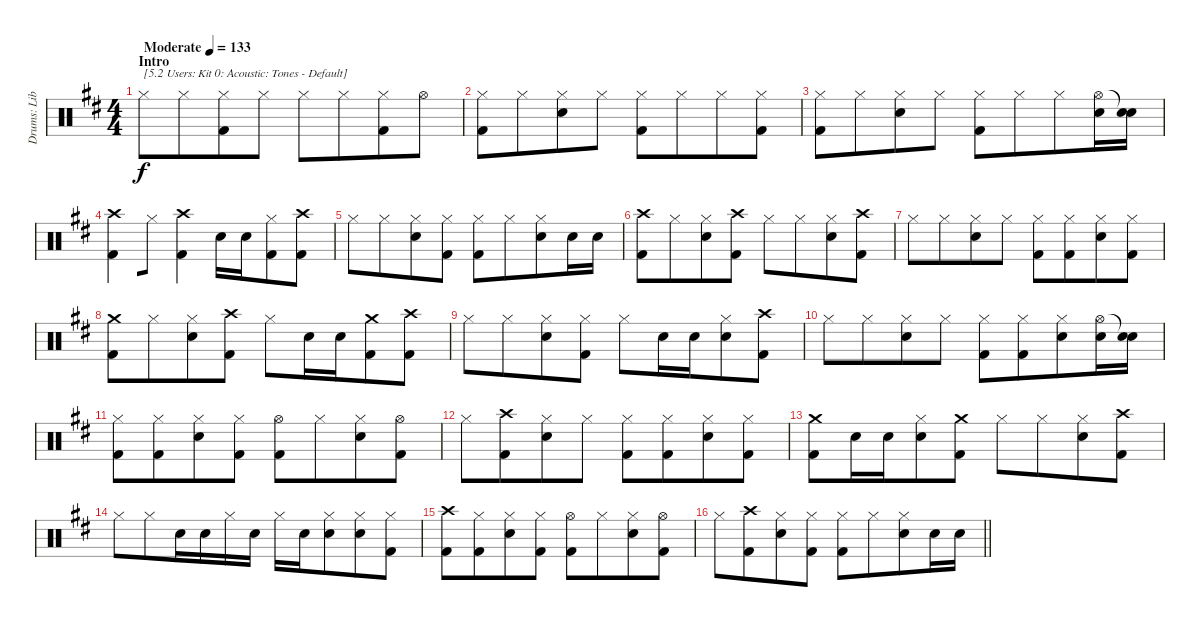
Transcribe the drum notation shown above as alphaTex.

\track ("Drums: Liberty" "Drums: Lib") {instrument percussion}
\staff {score}
\articulation defaults
\ts (4 4)
\section ("" "Intro")
\tempo (133 "Moderate")
\clef neutral
\ks d "Hi-Hat (closed)".8{txt "[5.2 Users: Kit 0: Acoustic: Tones - Default]" dy f} "Hi-Hat (closed)".8{beam merge}
("Hi-Hat (closed)" "Kick (hit) 2").8 "Hi-Hat (closed)".8 "Hi-Hat (closed)".8 "Hi-Hat (closed)".8{beam merge} ("Hi-Hat (closed)" "Kick (hit) 2").8 "Hi-Hat (open)".8 |
("Hi-Hat (closed)" "Kick (hit) 2").8 "Hi-Hat (closed)".8{beam merge} ("Hi-Hat (closed)" "Electric Snare (hit)").8 "Hi-Hat (closed)".8 ("Hi-Hat (closed)" "Kick (hit) 2").8 "Hi-Hat (closed)".8{beam merge} "Hi-Hat (closed)".8 ("Hi-Hat (closed)" "Kick (hit) 2").8 |
("Hi-Hat (closed)" "Kick (hit) 2").8 "Hi-Hat (closed)".8{beam merge} ("Hi-Hat (closed)" "Electric Snare (hit)").8 "Hi-Hat (closed)".8 ("Hi-Hat (closed)" "Kick (hit) 2").8 "Hi-Hat (closed)".8{beam merge} "Hi-Hat (closed)".8 ("Hi-Hat (open)" "Electric Snare (hit)").16 ("Snare (hit)"{t} "Electric Snare (hit)").16 |
("Crash high (hit)" "Kick (hit) 2").4{beam merge} "Hi-Hat (closed)".8 ("Crash high (hit)" "Kick (hit) 2").4 "Electric Snare (hit)".16 "Electric Snare (hit)".16{beam merge} ("Hi-Hat (closed)" "Kick (hit) 2").8 ("Crash high (hit)" "Kick (hit) 2").8 |
"Hi-Hat (closed)".8 "Hi-Hat (closed)".8{beam merge} ("Hi-Hat (closed)" "Electric Snare (hit)").8 ("Hi-Hat (closed)" "Kick (hit) 2").8 ("Hi-Hat (closed)" "Kick (hit) 2").8 "Hi-Hat (closed)".8{beam merge} ("Hi-Hat (closed)" "Electric Snare (hit)").8 "Electric Snare (hit)".16 "Electric Snare (hit)".16 |
("Crash high (hit)" "Kick (hit) 2").8 "Hi-Hat (closed)".8{beam merge} ("Hi-Hat (closed)" "Electric Snare (hit)").8 ("Crash high (hit)" "Kick (hit) 2").8 "Hi-Hat (closed)".8 "Hi-Hat (closed)".8{beam merge} ("Hi-Hat (closed)" "Electric Snare (hit)").8 ("Crash high (hit)" "Kick (hit) 2").8 |
"Hi-Hat (closed)".8 "Hi-Hat (closed)".8{beam merge} ("Hi-Hat (closed)" "Electric Snare (hit)").8 "Hi-Hat (closed)".8 ("Hi-Hat (closed)" "Kick (hit) 2").8 ("Hi-Hat (closed)" "Kick (hit) 2").8{beam merge} ("Hi-Hat (closed)" "Electric Snare (hit)").8 ("Hi-Hat (closed)" "Kick (hit) 2").8 |
("Crash medium (hit)" "Kick (hit) 2").8 "Hi-Hat (closed)".8{beam merge} ("Hi-Hat (closed)" "Electric Snare (hit)").8 ("Crash high (hit)" "Kick (hit) 2").8 "Hi-Hat (closed)".8 "Electric Snare (hit)".16 "Electric Snare (hit)".16{beam merge} ("Crash medium (hit)" "Kick (hit) 2").8 ("Crash high (hit)" "Kick (hit) 2").8 |
"Hi-Hat (closed)".8 "Hi-Hat (closed)".8{beam merge} ("Hi-Hat (closed)" "Electric Snare (hit)").8 ("Hi-Hat (closed)" "Kick (hit) 2").8 "Hi-Hat (closed)".8 "Electric Snare (hit)".16 "Electric Snare (hit)".16{beam merge} ("Hi-Hat (closed)" "Electric Snare (hit)").8 ("Crash high (hit)" "Kick (hit) 2").8 |
"Hi-Hat (closed)".8 "Hi-Hat (closed)".8{beam merge} ("Hi-Hat (closed)" "Electric Snare (hit)").8 "Hi-Hat (closed)".8 ("Hi-Hat (closed)" "Kick (hit) 2").8 ("Hi-Hat (closed)" "Kick (hit) 2").8{beam merge} ("Hi-Hat (closed)" "Electric Snare (hit)").8 ("Hi-Hat (open)" "Electric Snare (hit)").16 ("Snare (hit)"{t} "Electric Snare (hit)").16 |
("Hi-Hat (closed)" "Kick (hit) 2").8 ("Hi-Hat (closed)" "Kick (hit) 2").8{beam merge} ("Hi-Hat (closed)" "Electric Snare (hit)").8 ("Hi-Hat (closed)" "Kick (hit) 2").8 ("Hi-Hat (open)" "Kick (hit) 2").8 "Hi-Hat (closed)".8{beam merge} ("Hi-Hat (closed)" "Electric Snare (hit)").8 ("Hi-Hat (open)" "Kick (hit) 2").8 |
"Hi-Hat (closed)".8 ("Crash high (hit)" "Kick (hit) 2").8{beam merge} ("Hi-Hat (closed)" "Electric Snare (hit)").8 "Hi-Hat (closed)".8 ("Hi-Hat (closed)" "Kick (hit) 2").8 ("Hi-Hat (closed)" "Kick (hit) 2").8{beam merge} ("Hi-Hat (closed)" "Electric Snare (hit)").8 ("Hi-Hat (closed)" "Kick (hit) 2").8 |
("Crash medium (hit)" "Kick (hit) 2").8 "Electric Snare (hit)".16 "Electric Snare (hit)".16{beam merge} ("Hi-Hat (closed)" "Electric Snare (hit)").8 ("Crash medium (hit)" "Kick (hit) 2").8 "Hi-Hat (closed)".8 "Hi-Hat (closed)".8{beam merge} ("Hi-Hat (closed)" "Electric Snare (hit)").8 ("Crash high (hit)" "Kick (hit) 2").8 |
"Hi-Hat (closed)".8 "Hi-Hat (closed)".8{beam merge} "Electric Snare (hit)".16 "Electric Snare (hit)".16 "Hi-Hat (closed)".16 "Electric Snare (hit)".16 "Hi-Hat (closed)".16 "Electric Snare (hit)".16 ("Hi-Hat (closed)" "Electric Snare (hit)").8{beam merge} ("Hi-Hat (closed)" "Electric Snare (hit)").8 ("Hi-Hat (closed)" "Kick (hit) 2").8 |
("Crash high (hit)" "Kick (hit) 2").8 ("Hi-Hat (closed)" "Kick (hit) 2").8{beam merge} ("Hi-Hat (closed)" "Electric Snare (hit)").8 ("Hi-Hat (closed)" "Kick (hit) 2").8 ("Hi-Hat (open)" "Kick (hit) 2").8 "Hi-Hat (closed)".8{beam merge} ("Hi-Hat (closed)" "Electric Snare (hit)").8 ("Hi-Hat (open)" "Kick (hit) 2").8 |
\barLineRight lightlight "Hi-Hat (closed)".8
("Crash high (hit)" "Kick (hit) 2").8{beam merge} ("Hi-Hat (closed)" "Electric Snare (hit)").8 ("Hi-Hat (closed)" "Kick (hit) 2").8 ("Hi-Hat (closed)" "Kick (hit) 2").8 "Hi-Hat (closed)".8{beam merge} ("Hi-Hat (closed)" "Electric Snare (hit)").8 "Electric Snare (hit)".16 "Electric Snare (hit)".16
